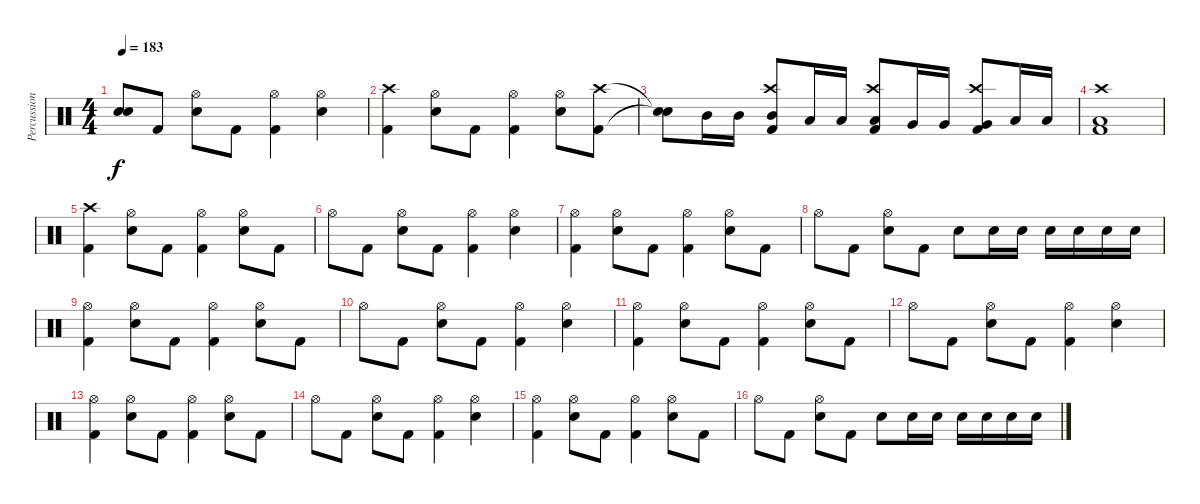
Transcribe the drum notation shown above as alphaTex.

\track ("Percussion" "Percussion") {instrument percussion}
\staff {score}
\articulation defaults
\ts (4 4)
\tempo 183
\clef neutral
\ks c
("Snare (hit)"{t} "Snare (hit)"{t}).8{dy f} "Kick (hit) 2".8 ("Hi-Hat (open)" "Electric Snare (hit)").8 "Kick (hit) 2".8 ("Hi-Hat (open)" "Kick (hit) 2").4 ("Hi-Hat (open)" "Electric Snare (hit)").4 |
("Crash high (hit)" "Kick (hit) 2").4 ("Hi-Hat (open)" "Electric Snare (hit)").8 "Kick (hit) 2".8 ("Hi-Hat (open)" "Kick (hit) 2").4 ("Hi-Hat (open)" "Electric Snare (hit)").8 ("Crash high (hit)" "Kick (hit) 2").8 |
("Snare (hit)"{t} "Snare (hit)"{t}).8 "Mid Tom (hit)".16 "Mid Tom (hit)".16 ("Crash high (hit)" "Mid Tom (hit)" "Kick (hit) 2").8 "Low Tom (hit)".16 "Low Tom (hit)".16 ("Crash high (hit)" "Low Tom (hit)" "Kick (hit) 2").8 "Very Low Tom (hit)".16 "Very Low Tom (hit)".16 ("Crash high (hit)" "Very Low Tom (hit)" "Kick (hit) 2").8 "Low Floor Tom (hit)".16 "Low Floor Tom (hit)".16 |
("Crash high (hit)" "Low Floor Tom (hit)" "Kick (hit) 2").1 |
("Crash high (hit)" "Kick (hit) 2").4 ("Hi-Hat (open)" "Electric Snare (hit)").8 "Kick (hit) 2".8 ("Hi-Hat (open)" "Kick (hit) 2").4 ("Hi-Hat (open)" "Electric Snare (hit)").8 "Kick (hit) 2".8 |
"Hi-Hat (open)".8 "Kick (hit) 2".8 ("Hi-Hat (open)" "Electric Snare (hit)").8 "Kick (hit) 2".8 ("Hi-Hat (open)" "Kick (hit) 2").4 ("Hi-Hat (open)" "Electric Snare (hit)").4 |
("Hi-Hat (open)" "Kick (hit) 2").4 ("Hi-Hat (open)" "Electric Snare (hit)").8 "Kick (hit) 2".8 ("Hi-Hat (open)" "Kick (hit) 2").4 ("Hi-Hat (open)" "Electric Snare (hit)").8 "Kick (hit) 2".8 |
"Hi-Hat (open)".8 "Kick (hit) 2".8 ("Hi-Hat (open)" "Electric Snare (hit)").8 "Kick (hit) 2".8 "Electric Snare (hit)".8 "Electric Snare (hit)".16 "Electric Snare (hit)".16 "Electric Snare (hit)".16 "Electric Snare (hit)".16 "Electric Snare (hit)".16 "Electric Snare (hit)".16 |
("Hi-Hat (open)" "Kick (hit) 2").4 ("Hi-Hat (open)" "Electric Snare (hit)").8 "Kick (hit) 2".8 ("Hi-Hat (open)" "Kick (hit) 2").4 ("Hi-Hat (open)" "Electric Snare (hit)").8 "Kick (hit) 2".8 |
"Hi-Hat (open)".8 "Kick (hit) 2".8 ("Hi-Hat (open)" "Electric Snare (hit)").8 "Kick (hit) 2".8 ("Hi-Hat (open)" "Kick (hit) 2").4 ("Hi-Hat (open)" "Electric Snare (hit)").4 |
("Hi-Hat (open)" "Kick (hit) 2").4 ("Hi-Hat (open)" "Electric Snare (hit)").8 "Kick (hit) 2".8 ("Hi-Hat (open)" "Kick (hit) 2").4 ("Hi-Hat (open)" "Electric Snare (hit)").8 "Kick (hit) 2".8 |
"Hi-Hat (open)".8 "Kick (hit) 2".8 ("Hi-Hat (open)" "Electric Snare (hit)").8 "Kick (hit) 2".8 ("Hi-Hat (open)" "Kick (hit) 2").4 ("Hi-Hat (open)" "Electric Snare (hit)").4 |
("Hi-Hat (open)" "Kick (hit) 2").4 ("Hi-Hat (open)" "Electric Snare (hit)").8 "Kick (hit) 2".8 ("Hi-Hat (open)" "Kick (hit) 2").4 ("Hi-Hat (open)" "Electric Snare (hit)").8 "Kick (hit) 2".8 |
"Hi-Hat (open)".8 "Kick (hit) 2".8 ("Hi-Hat (open)" "Electric Snare (hit)").8 "Kick (hit) 2".8 ("Hi-Hat (open)" "Kick (hit) 2").4 ("Hi-Hat (open)" "Electric Snare (hit)").4 |
("Hi-Hat (open)" "Kick (hit) 2").4 ("Hi-Hat (open)" "Electric Snare (hit)").8 "Kick (hit) 2".8 ("Hi-Hat (open)" "Kick (hit) 2").4 ("Hi-Hat (open)" "Electric Snare (hit)").8 "Kick (hit) 2".8 |
"Hi-Hat (open)".8 "Kick (hit) 2".8 ("Hi-Hat (open)" "Electric Snare (hit)").8 "Kick (hit) 2".8 "Electric Snare (hit)".8 "Electric Snare (hit)".16 "Electric Snare (hit)".16 "Electric Snare (hit)".16 "Electric Snare (hit)".16 "Electric Snare (hit)".16 "Electric Snare (hit)".16
